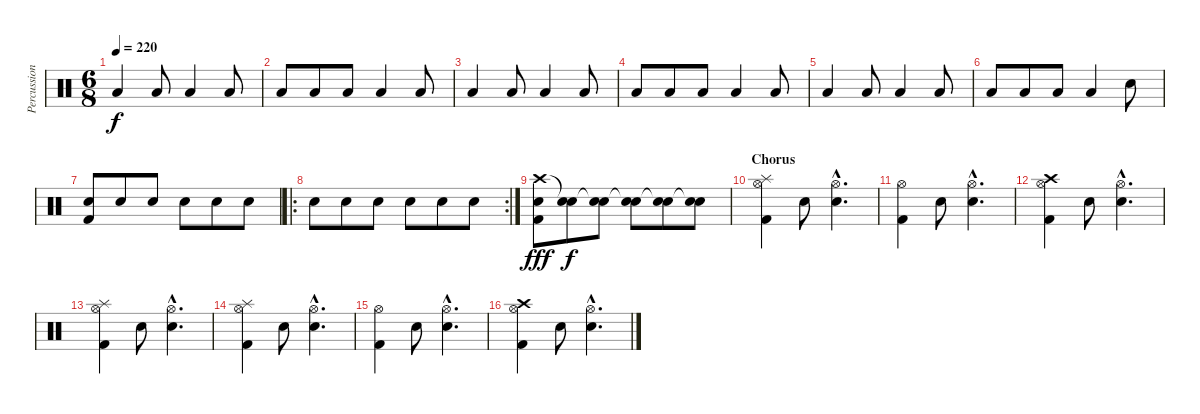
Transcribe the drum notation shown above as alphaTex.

\track ("Percussion" "Percussion") {instrument percussion}
\staff {score}
\articulation defaults
\ts (6 8)
\tempo 220
\clef neutral
\ks c "Low Floor Tom (hit)".4{dy f} "Low Floor Tom (hit)".8 "Low Tom (hit)".4 "Low Tom (hit)".8
|
"Low Floor Tom (hit)".8 "Low Floor Tom (hit)".8 "Low Floor Tom (hit)".8 "Low Tom (hit)".4 "Low Tom (hit)".8 |
"Low Floor Tom (hit)".4 "Low Floor Tom (hit)".8 "Low Tom (hit)".4 "Low Tom (hit)".8 |
"Low Floor Tom (hit)".8 "Low Floor Tom (hit)".8 "Low Floor Tom (hit)".8 "Low Tom (hit)".4 "Low Tom (hit)".8 |
"Low Floor Tom (hit)".4 "Low Floor Tom (hit)".8 "Low Tom (hit)".4 "Low Tom (hit)".8 |
"Low Floor Tom (hit)".8 "Low Floor Tom (hit)".8 "Low Floor Tom (hit)".8 "Low Tom (hit)".4 "Electric Snare (hit)".8{volume 11} |
("Electric Snare (hit)" "Kick (hit) 2").8 "Electric Snare (hit)".8 "Electric Snare (hit)".8 "Electric Snare (hit)".8 "Electric Snare (hit)".8 "Electric Snare (hit)".8 |
\ro
\rc 2 "Electric Snare (hit)".8 "Electric Snare (hit)".8 "Electric Snare (hit)".8 "Electric Snare (hit)".8 "Electric Snare (hit)".8 "Electric Snare (hit)".8
|
("Crash high (hit)" "Electric Snare (hit)" "Kick (hit) 2").8{dy fff} ("Snare (hit)"{t} "Electric Snare (hit)").8{dy f} ("Snare (hit)"{t} "Electric Snare (hit)").8 ("Snare (hit)"{t} "Electric Snare (hit)").8 ("Snare (hit)"{t} "Electric Snare (hit)").8 ("Snare (hit)"{t} "Electric Snare (hit)").8 |
\section ("" "Chorus")
("Hi-Hat (open)" "Splash (hit)" "Kick (hit) 2").4 "Snare (hit) 2".8 ("Hi-Hat (open)"{hac} "Electric Snare (hit)"{hac}).4{d} |
("Hi-Hat (open)" "Kick (hit) 2").4 "Snare (hit) 2".8 ("Hi-Hat (open)"{hac} "Electric Snare (hit)"{hac}).4{d} |
("Hi-Hat (open)" "Crash high (hit)" "Kick (hit) 2").4 "Snare (hit) 2".8 ("Hi-Hat (open)"{hac} "Electric Snare (hit)"{hac}).4{d} |
("Hi-Hat (open)" "Splash (hit)" "Kick (hit) 2").4 "Snare (hit) 2".8 ("Hi-Hat (open)"{hac} "Electric Snare (hit)"{hac}).4{d} |
("Hi-Hat (open)" "Splash (hit)" "Kick (hit) 2").4 "Snare (hit) 2".8 ("Hi-Hat (open)"{hac} "Electric Snare (hit)"{hac}).4{d} |
("Hi-Hat (open)" "Kick (hit) 2").4 "Snare (hit) 2".8 ("Hi-Hat (open)"{hac} "Electric Snare (hit)"{hac}).4{d} |
("Hi-Hat (open)" "Crash high (hit)" "Kick (hit) 2").4 "Snare (hit) 2".8 ("Hi-Hat (open)"{hac} "Electric Snare (hit)"{hac}).4{d}
